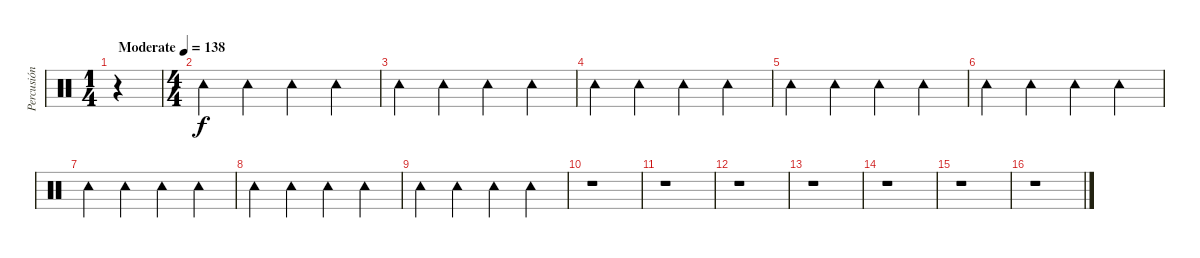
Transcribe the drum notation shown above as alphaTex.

\track ("Percusión" "Percusión") {instrument percussion}
\staff {score}
\articulation defaults
\ts (1 4)
\tempo (138 "Moderate")
\clef neutral
\ks c
r.4{dy f} |
\ts (4 4)
"Tambourine (hit)".4 "Tambourine (hit)".4 "Tambourine (hit)".4 "Tambourine (hit)".4 |
"Tambourine (hit)".4 "Tambourine (hit)".4 "Tambourine (hit)".4 "Tambourine (hit)".4 |
"Tambourine (hit)".4 "Tambourine (hit)".4 "Tambourine (hit)".4 "Tambourine (hit)".4 |
"Tambourine (hit)".4 "Tambourine (hit)".4 "Tambourine (hit)".4 "Tambourine (hit)".4 |
"Tambourine (hit)".4 "Tambourine (hit)".4 "Tambourine (hit)".4 "Tambourine (hit)".4 |
"Tambourine (hit)".4 "Tambourine (hit)".4 "Tambourine (hit)".4 "Tambourine (hit)".4 |
"Tambourine (hit)".4 "Tambourine (hit)".4 "Tambourine (hit)".4 "Tambourine (hit)".4 |
"Tambourine (hit)".4 "Tambourine (hit)".4 "Tambourine (hit)".4 "Tambourine (hit)".4 |
r.1 |
r.1 |
r.1 |
r.1 |
r.1 |
r.1 |
r.1
